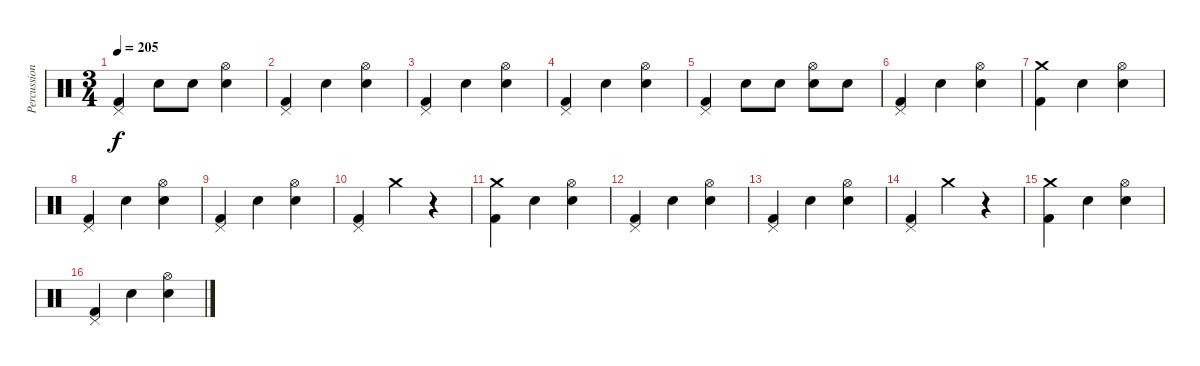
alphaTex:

\track ("Percussion" "Percussion") {instrument percussion}
\staff {score}
\articulation defaults
\ts (3 4)
\tempo 205
\clef neutral
\ks c
("Pedal Hi-Hat (hit)" "Kick (hit) 2").4{dy f} "Electric Snare (hit)".8 "Electric Snare (hit)".8 ("Hi-Hat (open)" "Electric Snare (hit)").4 |
("Pedal Hi-Hat (hit)" "Kick (hit) 2").4 "Electric Snare (hit)".4 ("Hi-Hat (open)" "Electric Snare (hit)").4 |
("Pedal Hi-Hat (hit)" "Kick (hit) 2").4 "Electric Snare (hit)".4 ("Hi-Hat (open)" "Electric Snare (hit)").4 |
("Pedal Hi-Hat (hit)" "Kick (hit) 2").4 "Electric Snare (hit)".4 ("Hi-Hat (open)" "Electric Snare (hit)").4 |
("Pedal Hi-Hat (hit)" "Kick (hit) 2").4 "Electric Snare (hit)".8 "Electric Snare (hit)".8 ("Hi-Hat (open)" "Electric Snare (hit)").8 "Electric Snare (hit)".8 |
("Pedal Hi-Hat (hit)" "Kick (hit) 2").4 "Electric Snare (hit)".4 ("Hi-Hat (open)" "Electric Snare (hit)").4 |
("Crash medium (hit)" "Kick (hit) 2").4 "Electric Snare (hit)".4 ("Hi-Hat (open)" "Electric Snare (hit)").4 |
("Pedal Hi-Hat (hit)" "Kick (hit) 2").4 "Electric Snare (hit)".4 ("Hi-Hat (open)" "Electric Snare (hit)").4 |
("Pedal Hi-Hat (hit)" "Kick (hit) 2").4 "Electric Snare (hit)".4 ("Hi-Hat (open)" "Electric Snare (hit)").4 |
("Pedal Hi-Hat (hit)" "Kick (hit) 2").4 "Crash medium (hit)".4 r.4 |
("Crash medium (hit)" "Kick (hit) 2").4 "Electric Snare (hit)".4 ("Hi-Hat (open)" "Electric Snare (hit)").4 |
("Pedal Hi-Hat (hit)" "Kick (hit) 2").4 "Electric Snare (hit)".4 ("Hi-Hat (open)" "Electric Snare (hit)").4 |
("Pedal Hi-Hat (hit)" "Kick (hit) 2").4 "Electric Snare (hit)".4 ("Hi-Hat (open)" "Electric Snare (hit)").4 |
("Pedal Hi-Hat (hit)" "Kick (hit) 2").4 "Crash medium (hit)".4 r.4 |
("Crash medium (hit)" "Kick (hit) 2").4 "Electric Snare (hit)".4 ("Hi-Hat (open)" "Electric Snare (hit)").4 |
("Pedal Hi-Hat (hit)" "Kick (hit) 2").4 "Electric Snare (hit)".4 ("Hi-Hat (open)" "Electric Snare (hit)").4
